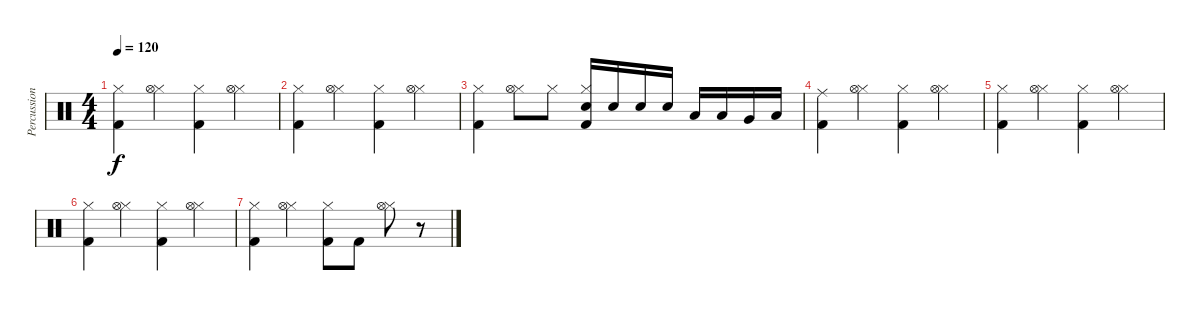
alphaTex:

\track ("Percussion" "Percussion") {instrument percussion}
\staff {score}
\articulation defaults
\ts (4 4)
\tempo 120
\clef neutral
\ks c
("Kick (hit) 2" "Hi-Hat (closed)").4{dy f} ("Hi-Hat (closed)" "Hi-Hat (open)").4 ("Kick (hit) 2" "Hi-Hat (closed)").4 ("Hi-Hat (closed)" "Hi-Hat (open)").4 |
("Kick (hit) 2" "Hi-Hat (closed)").4 ("Hi-Hat (closed)" "Hi-Hat (open)").4 ("Kick (hit) 2" "Hi-Hat (closed)").4 ("Hi-Hat (closed)" "Hi-Hat (open)").4 |
("Kick (hit) 2" "Hi-Hat (closed)").4 ("Hi-Hat (closed)" "Hi-Hat (open)").8 "Hi-Hat (closed)".8 ("Kick (hit) 2" "Snare (hit) 2" "Hi-Hat (closed)").16 "Snare (hit) 2".16 "Snare (hit) 2".16 "Snare (hit) 2".16 "Low Tom (hit)".16 "Low Tom (hit)".16 "Very Low Tom (hit)".16 "Low Floor Tom (hit)".16 |
("Kick (hit) 2" "Ride (middle)").4 ("Hi-Hat (closed)" "Hi-Hat (open)").4 ("Kick (hit) 2" "Hi-Hat (closed)").4 ("Hi-Hat (closed)" "Hi-Hat (open)").4 |
("Kick (hit) 2" "Hi-Hat (closed)").4 ("Hi-Hat (closed)" "Hi-Hat (open)").4 ("Kick (hit) 2" "Hi-Hat (closed)").4 ("Hi-Hat (closed)" "Hi-Hat (open)").4 |
("Kick (hit) 2" "Hi-Hat (closed)").4 ("Hi-Hat (closed)" "Hi-Hat (open)").4 ("Kick (hit) 2" "Hi-Hat (closed)").4 ("Hi-Hat (closed)" "Hi-Hat (open)").4 |
("Kick (hit) 2" "Hi-Hat (closed)").4 ("Hi-Hat (closed)" "Hi-Hat (open)").4 ("Kick (hit) 2" "Hi-Hat (closed)").8 "Kick (hit) 2".8 ("Hi-Hat (closed)" "Hi-Hat (open)").8 r.8
